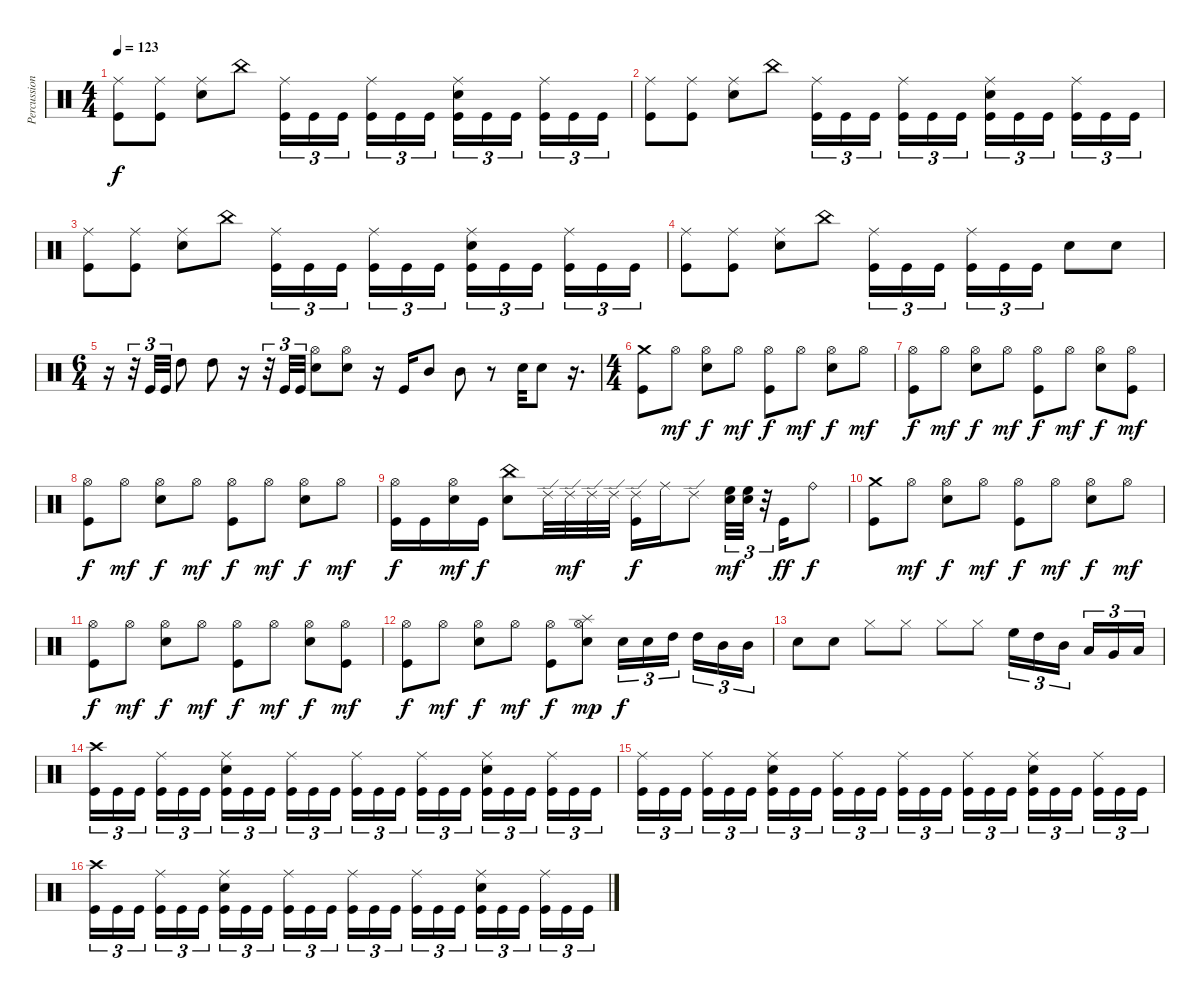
\track ("Percussions" "Percussion") {instrument percussion}
\staff {score}
\articulation defaults
\ts (4 4)
\tempo 123
\clef neutral
\ks c
("Ride (middle)" "Kick (hit)").8{dy f} ("Ride (middle)" "Kick (hit)").8 ("Ride (middle)" "Electric Snare (hit)").8 "China (hit)".8 ("Ride (middle)" "Kick (hit)").16{tu (3 2)} "Kick (hit)".16{tu (3 2)} "Kick (hit)".16{tu (3 2)} ("Ride (middle)" "Kick (hit)").16{tu (3 2)} "Kick (hit)".16{tu (3 2)} "Kick (hit)".16{tu (3 2)} ("Ride (middle)" "Electric Snare (hit)" "Kick (hit)").16{tu (3 2)} "Kick (hit)".16{tu (3 2)} "Kick (hit)".16{tu (3 2)} ("Ride (middle)" "Kick (hit)").16{tu (3 2)} "Kick (hit)".16{tu (3 2)} "Kick (hit)".16{tu (3 2)} |
("Ride (middle)" "Kick (hit)").8 ("Ride (middle)" "Kick (hit)").8 ("Ride (middle)" "Electric Snare (hit)").8 "China (hit)".8 ("Ride (middle)" "Kick (hit)").16{tu (3 2)} "Kick (hit)".16{tu (3 2)} "Kick (hit)".16{tu (3 2)} ("Ride (middle)" "Kick (hit)").16{tu (3 2)} "Kick (hit)".16{tu (3 2)} "Kick (hit)".16{tu (3 2)} ("Ride (middle)" "Electric Snare (hit)" "Kick (hit)").16{tu (3 2)} "Kick (hit)".16{tu (3 2)} "Kick (hit)".16{tu (3 2)} ("Ride (middle)" "Kick (hit)").16{tu (3 2)} "Kick (hit)".16{tu (3 2)} "Kick (hit)".16{tu (3 2)} |
("Ride (middle)" "Kick (hit)").8 ("Ride (middle)" "Kick (hit)").8 ("Ride (middle)" "Electric Snare (hit)").8 "China (hit)".8 ("Ride (middle)" "Kick (hit)").16{tu (3 2)} "Kick (hit)".16{tu (3 2)} "Kick (hit)".16{tu (3 2)} ("Ride (middle)" "Kick (hit)").16{tu (3 2)} "Kick (hit)".16{tu (3 2)} "Kick (hit)".16{tu (3 2)} ("Ride (middle)" "Electric Snare (hit)" "Kick (hit)").16{tu (3 2)} "Kick (hit)".16{tu (3 2)} "Kick (hit)".16{tu (3 2)} ("Ride (middle)" "Kick (hit)").16{tu (3 2)} "Kick (hit)".16{tu (3 2)} "Kick (hit)".16{tu (3 2)} |
("Ride (middle)" "Kick (hit)").8 ("Ride (middle)" "Kick (hit)").8 ("Ride (middle)" "Electric Snare (hit)").8 "China (hit)".8 ("Ride (middle)" "Kick (hit)").16{tu (3 2)} "Kick (hit)".16{tu (3 2)} "Kick (hit)".16{tu (3 2)} ("Ride (middle)" "Kick (hit)").16{tu (3 2)} "Kick (hit)".16{tu (3 2)} "Kick (hit)".16{tu (3 2)} "Electric Snare (hit)".8 "Electric Snare (hit)".8 |
\ts (6 4)
r.16 r.32{tu (3 2)} "Kick (hit)".32{tu (3 2)} "Kick (hit)".32{tu (3 2)} "High Tom (hit)".8 "High Tom (hit)".8 r.16 r.32{tu (3 2)} "Kick (hit)".32{tu (3 2)} "Kick (hit)".32{tu (3 2)} ("Hi-Hat (open)" "Electric Snare (hit)").8 ("Hi-Hat (open)" "Electric Snare (hit)").8 r.16 "Kick (hit)".16 "Mid Tom (hit)".8 "Mid Tom (hit)".8 r.8 "Electric Snare (hit)".32 "Electric Snare (hit)".8 r.16{d} |
\ts (4 4)
("Crash medium (hit)" "Kick (hit)").8 "Hi-Hat (open)".8{dy mf} ("Hi-Hat (open)" "Electric Snare (hit)").8{dy f} "Hi-Hat (open)".8{dy mf} ("Hi-Hat (open)" "Kick (hit)").8{dy f} "Hi-Hat (open)".8{dy mf} ("Hi-Hat (open)" "Electric Snare (hit)").8{dy f} "Hi-Hat (open)".8{dy mf} |
("Hi-Hat (open)" "Kick (hit)").8{dy f} "Hi-Hat (open)".8{dy mf} ("Hi-Hat (open)" "Electric Snare (hit)").8{dy f} "Hi-Hat (open)".8{dy mf} ("Hi-Hat (open)" "Kick (hit)").8{dy f} "Hi-Hat (open)".8{dy mf} ("Hi-Hat (open)" "Electric Snare (hit)").8{dy f} ("Hi-Hat (open)" "Kick (hit)").8{dy mf} |
("Hi-Hat (open)" "Kick (hit)").8{dy f} "Hi-Hat (open)".8{dy mf} ("Hi-Hat (open)" "Electric Snare (hit)").8{dy f} "Hi-Hat (open)".8{dy mf} ("Hi-Hat (open)" "Kick (hit)").8{dy f} "Hi-Hat (open)".8{dy mf} ("Hi-Hat (open)" "Electric Snare (hit)").8{dy f} "Hi-Hat (open)".8{dy mf} |
("Hi-Hat (open)" "Kick (hit)").16{dy f} "Kick (hit)".16 ("Hi-Hat (open)" "Snare (hit)").16{dy mf} "Kick (hit)".16{dy f} ("China (hit)" "Electric Snare (hit)").8 "Ride (edge) 2".32 "Ride (edge) 2".32{dy mf} "Ride (edge) 2".32 "Ride (edge) 2".32 ("Ride (edge) 2" "Kick (hit)").16{dy f} "Ride (middle)".16 "Ride (edge) 2".8 ("High Floor Tom (hit)" "Electric Snare (hit)").32{tu (3 2) dy mf} ("High Floor Tom (hit)" "Electric Snare (hit)").32{tu (3 2)} r.32{tu (3 2)} "Kick (hit)".16{dy ff} "Ride (bell)".8{dy f} |
("Crash medium (hit)" "Kick (hit)").8 "Hi-Hat (open)".8{dy mf} ("Hi-Hat (open)" "Electric Snare (hit)").8{dy f} "Hi-Hat (open)".8{dy mf} ("Hi-Hat (open)" "Kick (hit)").8{dy f} "Hi-Hat (open)".8{dy mf} ("Hi-Hat (open)" "Electric Snare (hit)").8{dy f} "Hi-Hat (open)".8{dy mf} |
("Hi-Hat (open)" "Kick (hit)").8{dy f} "Hi-Hat (open)".8{dy mf} ("Hi-Hat (open)" "Electric Snare (hit)").8{dy f} "Hi-Hat (open)".8{dy mf} ("Hi-Hat (open)" "Kick (hit)").8{dy f} "Hi-Hat (open)".8{dy mf} ("Hi-Hat (open)" "Electric Snare (hit)").8{dy f} ("Hi-Hat (open)" "Kick (hit)").8{dy mf} |
("Hi-Hat (open)" "Kick (hit)").8{dy f} "Hi-Hat (open)".8{dy mf} ("Hi-Hat (open)" "Electric Snare (hit)").8{dy f} "Hi-Hat (open)".8{dy mf} ("Hi-Hat (open)" "Kick (hit)").8{dy f} ("Splash (hit)" "Hi-Hat (open)" "Electric Snare (hit)").8{dy mp} "Electric Snare (hit)".16{tu (3 2) dy f} "Electric Snare (hit)".16{tu (3 2)} "High Tom (hit)".16{tu (3 2)} "High Tom (hit)".16{tu (3 2)} "Mid Tom (hit)".16{tu (3 2)} "Mid Tom (hit)".16{tu (3 2)} |
"Electric Snare (hit)".8 "Electric Snare (hit)".8 "Hi-Hat (closed)".8 "Hi-Hat (closed)".8 "Hi-Hat (closed)".8 "Hi-Hat (closed)".8 "High Floor Tom (hit)".16{tu (3 2)} "High Tom (hit)".16{tu (3 2)} "Mid Tom (hit)".16{tu (3 2)} "Low Tom (hit)".16{tu (3 2)} "Very Low Tom (hit)".16{tu (3 2)} "Low Floor Tom (hit)".16{tu (3 2)} |
("Crash high (hit)" "Kick (hit)").16{tu (3 2)} "Kick (hit)".16{tu (3 2)} "Kick (hit)".16{tu (3 2)} ("Ride (middle)" "Kick (hit)").16{tu (3 2)} "Kick (hit)".16{tu (3 2)} "Kick (hit)".16{tu (3 2)} ("Ride (middle)" "Electric Snare (hit)" "Kick (hit)").16{tu (3 2)} "Kick (hit)".16{tu (3 2)} "Kick (hit)".16{tu (3 2)} ("Ride (middle)" "Kick (hit)").16{tu (3 2)} "Kick (hit)".16{tu (3 2)} "Kick (hit)".16{tu (3 2)} ("Ride (middle)" "Kick (hit)").16{tu (3 2)} "Kick (hit)".16{tu (3 2)} "Kick (hit)".16{tu (3 2)} ("Ride (middle)" "Kick (hit)").16{tu (3 2)} "Kick (hit)".16{tu (3 2)} "Kick (hit)".16{tu (3 2)} ("Ride (middle)" "Electric Snare (hit)" "Kick (hit)").16{tu (3 2)} "Kick (hit)".16{tu (3 2)} "Kick (hit)".16{tu (3 2)} ("Ride (middle)" "Kick (hit)").16{tu (3 2)} "Kick (hit)".16{tu (3 2)} "Kick (hit)".16{tu (3 2)} |
("Ride (middle)" "Kick (hit)").16{tu (3 2)} "Kick (hit)".16{tu (3 2)} "Kick (hit)".16{tu (3 2)} ("Ride (middle)" "Kick (hit)").16{tu (3 2)} "Kick (hit)".16{tu (3 2)} "Kick (hit)".16{tu (3 2)} ("Ride (middle)" "Electric Snare (hit)" "Kick (hit)").16{tu (3 2)} "Kick (hit)".16{tu (3 2)} "Kick (hit)".16{tu (3 2)} ("Ride (middle)" "Kick (hit)").16{tu (3 2)} "Kick (hit)".16{tu (3 2)} "Kick (hit)".16{tu (3 2)} ("Ride (middle)" "Kick (hit)").16{tu (3 2)} "Kick (hit)".16{tu (3 2)} "Kick (hit)".16{tu (3 2)} ("Ride (middle)" "Kick (hit)").16{tu (3 2)} "Kick (hit)".16{tu (3 2)} "Kick (hit)".16{tu (3 2)} ("Ride (middle)" "Electric Snare (hit)" "Kick (hit)").16{tu (3 2)} "Kick (hit)".16{tu (3 2)} "Kick (hit)".16{tu (3 2)} ("Ride (middle)" "Kick (hit)").16{tu (3 2)} "Kick (hit)".16{tu (3 2)} "Kick (hit)".16{tu (3 2)} |
("Crash high (hit)" "Kick (hit)").16{tu (3 2)} "Kick (hit)".16{tu (3 2)} "Kick (hit)".16{tu (3 2)} ("Ride (middle)" "Kick (hit)").16{tu (3 2)} "Kick (hit)".16{tu (3 2)} "Kick (hit)".16{tu (3 2)} ("Ride (middle)" "Electric Snare (hit)" "Kick (hit)").16{tu (3 2)} "Kick (hit)".16{tu (3 2)} "Kick (hit)".16{tu (3 2)} ("Ride (middle)" "Kick (hit)").16{tu (3 2)} "Kick (hit)".16{tu (3 2)} "Kick (hit)".16{tu (3 2)} ("Ride (middle)" "Kick (hit)").16{tu (3 2)} "Kick (hit)".16{tu (3 2)} "Kick (hit)".16{tu (3 2)} ("Ride (middle)" "Kick (hit)").16{tu (3 2)} "Kick (hit)".16{tu (3 2)} "Kick (hit)".16{tu (3 2)} ("Ride (middle)" "Electric Snare (hit)" "Kick (hit)").16{tu (3 2)} "Kick (hit)".16{tu (3 2)} "Kick (hit)".16{tu (3 2)} ("Ride (middle)" "Kick (hit)").16{tu (3 2)} "Kick (hit)".16{tu (3 2)} "Kick (hit)".16{tu (3 2)}
